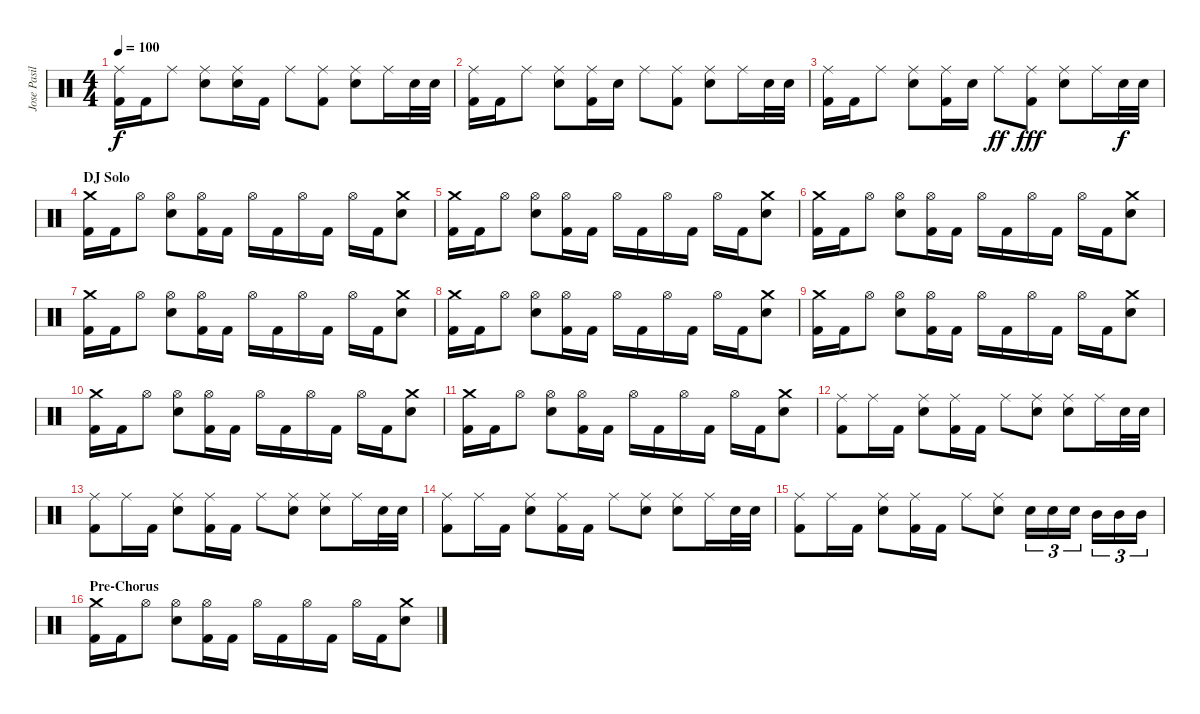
\track ("Jose Pasillas - Drums" "Jose Pasil") {instrument percussion}
\staff {score}
\articulation defaults
\ts (4 4)
\tempo 100
\clef neutral
\ks c
("Ride (middle)" "Kick (hit) 2").16{dy f} "Kick (hit) 2".16 "Ride (middle)".8 ("Ride (middle)" "Electric Snare (hit)").8 ("Ride (middle)" "Electric Snare (hit)").16 "Kick (hit) 2".16 "Ride (middle)".8 ("Ride (middle)" "Kick (hit) 2").8 ("Ride (middle)" "Electric Snare (hit)").8 "Ride (middle)".16 "Electric Snare (hit)".32 "Electric Snare (hit)".32 |
("Ride (middle)" "Kick (hit) 2").16 "Kick (hit) 2".16 "Ride (middle)".8 ("Ride (middle)" "Electric Snare (hit)").8 ("Ride (middle)" "Kick (hit) 2").16 "Electric Snare (hit)".16 "Ride (middle)".8 ("Ride (middle)" "Kick (hit) 2").8 ("Ride (middle)" "Electric Snare (hit)").8 "Ride (middle)".16 "Electric Snare (hit)".32 "Electric Snare (hit)".32 |
("Ride (middle)" "Kick (hit) 2").16 "Kick (hit) 2".16 "Ride (middle)".8 ("Ride (middle)" "Electric Snare (hit)").8 ("Ride (middle)" "Kick (hit) 2").16 "Electric Snare (hit)".16 "Ride (middle)".8{dy ff} ("Ride (middle)" "Kick (hit) 2").8{dy fff} ("Ride (middle)" "Electric Snare (hit)").8 "Ride (middle)".16 "Electric Snare (hit)".32{dy f} "Electric Snare (hit)".32 |
\section ("" "DJ Solo")
("Crash medium (hit)" "Kick (hit) 2").16 "Kick (hit) 2".16 "Hi-Hat (open)".8 ("Hi-Hat (open)" "Electric Snare (hit)").8 ("Hi-Hat (open)" "Kick (hit) 2").16 "Kick (hit) 2".16 "Hi-Hat (open)".16 "Kick (hit) 2".16 "Hi-Hat (open)".16 "Kick (hit) 2".16 "Hi-Hat (open)".16 "Kick (hit) 2".16 ("Crash medium (hit)" "Electric Snare (hit)").8 |
("Crash medium (hit)" "Kick (hit) 2").16 "Kick (hit) 2".16 "Hi-Hat (open)".8 ("Hi-Hat (open)" "Electric Snare (hit)").8 ("Hi-Hat (open)" "Kick (hit) 2").16 "Kick (hit) 2".16 "Hi-Hat (open)".16 "Kick (hit) 2".16 "Hi-Hat (open)".16 "Kick (hit) 2".16 "Hi-Hat (open)".16 "Kick (hit) 2".16 ("Crash medium (hit)" "Electric Snare (hit)").8 |
("Crash medium (hit)" "Kick (hit) 2").16 "Kick (hit) 2".16 "Hi-Hat (open)".8 ("Hi-Hat (open)" "Electric Snare (hit)").8 ("Hi-Hat (open)" "Kick (hit) 2").16 "Kick (hit) 2".16 "Hi-Hat (open)".16 "Kick (hit) 2".16 "Hi-Hat (open)".16 "Kick (hit) 2".16 "Hi-Hat (open)".16 "Kick (hit) 2".16 ("Crash medium (hit)" "Electric Snare (hit)").8 |
("Crash medium (hit)" "Kick (hit) 2").16 "Kick (hit) 2".16 "Hi-Hat (open)".8 ("Hi-Hat (open)" "Electric Snare (hit)").8 ("Hi-Hat (open)" "Kick (hit) 2").16 "Kick (hit) 2".16 "Hi-Hat (open)".16 "Kick (hit) 2".16 "Hi-Hat (open)".16 "Kick (hit) 2".16 "Hi-Hat (open)".16 "Kick (hit) 2".16 ("Crash medium (hit)" "Electric Snare (hit)").8 |
("Crash medium (hit)" "Kick (hit) 2").16 "Kick (hit) 2".16 "Hi-Hat (open)".8 ("Hi-Hat (open)" "Electric Snare (hit)").8 ("Hi-Hat (open)" "Kick (hit) 2").16 "Kick (hit) 2".16 "Hi-Hat (open)".16 "Kick (hit) 2".16 "Hi-Hat (open)".16 "Kick (hit) 2".16 "Hi-Hat (open)".16 "Kick (hit) 2".16 ("Crash medium (hit)" "Electric Snare (hit)").8 |
("Crash medium (hit)" "Kick (hit) 2").16 "Kick (hit) 2".16 "Hi-Hat (open)".8 ("Hi-Hat (open)" "Electric Snare (hit)").8 ("Hi-Hat (open)" "Kick (hit) 2").16 "Kick (hit) 2".16 "Hi-Hat (open)".16 "Kick (hit) 2".16 "Hi-Hat (open)".16 "Kick (hit) 2".16 "Hi-Hat (open)".16 "Kick (hit) 2".16 ("Crash medium (hit)" "Electric Snare (hit)").8 |
("Crash medium (hit)" "Kick (hit) 2").16 "Kick (hit) 2".16 "Hi-Hat (open)".8 ("Hi-Hat (open)" "Electric Snare (hit)").8 ("Hi-Hat (open)" "Kick (hit) 2").16 "Kick (hit) 2".16 "Hi-Hat (open)".16 "Kick (hit) 2".16 "Hi-Hat (open)".16 "Kick (hit) 2".16 "Hi-Hat (open)".16 "Kick (hit) 2".16 ("Crash medium (hit)" "Electric Snare (hit)").8 |
("Crash medium (hit)" "Kick (hit) 2").16 "Kick (hit) 2".16 "Hi-Hat (open)".8 ("Hi-Hat (open)" "Electric Snare (hit)").8 ("Hi-Hat (open)" "Kick (hit) 2").16 "Kick (hit) 2".16 "Hi-Hat (open)".16 "Kick (hit) 2".16 "Hi-Hat (open)".16 "Kick (hit) 2".16 "Hi-Hat (open)".16 "Kick (hit) 2".16 ("Crash medium (hit)" "Electric Snare (hit)").8 |
("Ride (middle)" "Kick (hit) 2").8 "Ride (middle)".16 "Kick (hit) 2".16 ("Ride (middle)" "Electric Snare (hit)").8 ("Ride (middle)" "Kick (hit) 2").16 "Kick (hit) 2".16 "Ride (middle)".8 ("Ride (middle)" "Electric Snare (hit)").8 ("Ride (middle)" "Electric Snare (hit)").8 "Ride (middle)".16 "Electric Snare (hit)".32 "Electric Snare (hit)".32 |
("Ride (middle)" "Kick (hit) 2").8 "Ride (middle)".16 "Kick (hit) 2".16 ("Ride (middle)" "Electric Snare (hit)").8 ("Ride (middle)" "Kick (hit) 2").16 "Kick (hit) 2".16 "Ride (middle)".8 ("Ride (middle)" "Electric Snare (hit)").8 ("Ride (middle)" "Electric Snare (hit)").8 "Ride (middle)".16 "Electric Snare (hit)".32 "Electric Snare (hit)".32 |
("Ride (middle)" "Kick (hit) 2").8 "Ride (middle)".16 "Kick (hit) 2".16 ("Ride (middle)" "Electric Snare (hit)").8 ("Ride (middle)" "Kick (hit) 2").16 "Kick (hit) 2".16 "Ride (middle)".8 ("Ride (middle)" "Electric Snare (hit)").8 ("Ride (middle)" "Electric Snare (hit)").8 "Ride (middle)".16 "Electric Snare (hit)".32 "Electric Snare (hit)".32 |
("Ride (middle)" "Kick (hit) 2").8 "Ride (middle)".16 "Kick (hit) 2".16 ("Ride (middle)" "Electric Snare (hit)").8 ("Ride (middle)" "Kick (hit) 2").16 "Kick (hit) 2".16 "Ride (middle)".8 ("Ride (middle)" "Electric Snare (hit)").8 "Electric Snare (hit)".16{tu (3 2)} "Electric Snare (hit)".16{tu (3 2)} "Electric Snare (hit)".16{tu (3 2)} "Mid Tom (hit)".16{tu (3 2)} "Mid Tom (hit)".16{tu (3 2)} "Mid Tom (hit)".16{tu (3 2)} |
\section ("" "Pre-Chorus")
("Crash medium (hit)" "Kick (hit) 2").16 "Kick (hit) 2".16 "Hi-Hat (open)".8 ("Hi-Hat (open)" "Electric Snare (hit)").8 ("Hi-Hat (open)" "Kick (hit) 2").16 "Kick (hit) 2".16 "Hi-Hat (open)".16 "Kick (hit) 2".16 "Hi-Hat (open)".16 "Kick (hit) 2".16 "Hi-Hat (open)".16 "Kick (hit) 2".16 ("Crash medium (hit)" "Electric Snare (hit)").8
